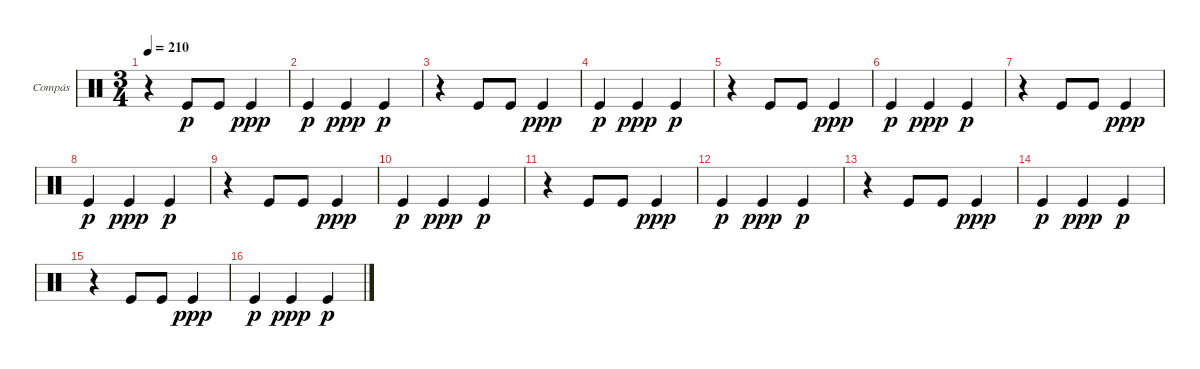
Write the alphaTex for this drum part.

\defaultSystemsLayout 4
\bracketExtendMode groupsimilarinstruments
\firstSystemTrackNameOrientation horizontal
\otherSystemsTrackNameOrientation horizontal
\track ("Compás" "Compás") {instrument percussion}
\staff {score}
\articulation defaults
\ts (3 4)
\tempo 210
\clef neutral
\ks c
r.4{dy p} "Kick (hit)".8 "Kick (hit)".8 "Kick (hit)".4{dy ppp} |
"Kick (hit)".4{dy p} "Kick (hit)".4{dy ppp} "Kick (hit)".4{dy p} |
r.4 "Kick (hit)".8 "Kick (hit)".8 "Kick (hit)".4{dy ppp} |
"Kick (hit)".4{dy p} "Kick (hit)".4{dy ppp} "Kick (hit)".4{dy p} |
r.4 "Kick (hit)".8 "Kick (hit)".8 "Kick (hit)".4{dy ppp} |
"Kick (hit)".4{dy p} "Kick (hit)".4{dy ppp} "Kick (hit)".4{dy p} |
r.4 "Kick (hit)".8 "Kick (hit)".8 "Kick (hit)".4{dy ppp} |
"Kick (hit)".4{dy p} "Kick (hit)".4{dy ppp} "Kick (hit)".4{dy p} |
r.4 "Kick (hit)".8 "Kick (hit)".8 "Kick (hit)".4{dy ppp} |
"Kick (hit)".4{dy p} "Kick (hit)".4{dy ppp} "Kick (hit)".4{dy p} |
r.4 "Kick (hit)".8 "Kick (hit)".8 "Kick (hit)".4{dy ppp} |
"Kick (hit)".4{dy p} "Kick (hit)".4{dy ppp} "Kick (hit)".4{dy p} |
r.4 "Kick (hit)".8 "Kick (hit)".8 "Kick (hit)".4{dy ppp} |
"Kick (hit)".4{dy p} "Kick (hit)".4{dy ppp} "Kick (hit)".4{dy p} |
r.4 "Kick (hit)".8 "Kick (hit)".8 "Kick (hit)".4{dy ppp} |
"Kick (hit)".4{dy p} "Kick (hit)".4{dy ppp} "Kick (hit)".4{dy p}
